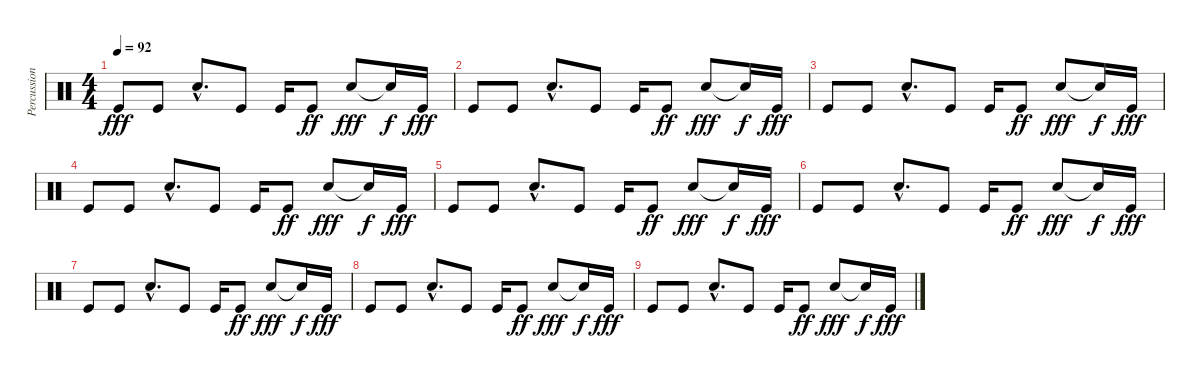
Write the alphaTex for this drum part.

\track ("Percussion" "Percussion") {instrument percussion}
\staff {score}
\articulation defaults
\ts (4 4)
\tempo 92
\clef neutral
\ks c "Kick (hit)".8{dy fff} "Kick (hit)".8 "Electric Snare (hit)"{hac}.8{d} "Kick (hit)".8 "Kick (hit)".16 "Kick (hit)".8{dy ff} "Electric Snare (hit)".8{dy fff} "Snare (hit)"{t}.16{dy f} "Kick (hit)".16{dy fff}
|
"Kick (hit)".8 "Kick (hit)".8 "Electric Snare (hit)"{hac}.8{d} "Kick (hit)".8 "Kick (hit)".16 "Kick (hit)".8{dy ff} "Electric Snare (hit)".8{dy fff} "Snare (hit)"{t}.16{dy f} "Kick (hit)".16{dy fff} |
"Kick (hit)".8 "Kick (hit)".8 "Electric Snare (hit)"{hac}.8{d} "Kick (hit)".8 "Kick (hit)".16 "Kick (hit)".8{dy ff} "Electric Snare (hit)".8{dy fff} "Snare (hit)"{t}.16{dy f} "Kick (hit)".16{dy fff} |
"Kick (hit)".8 "Kick (hit)".8 "Electric Snare (hit)"{hac}.8{d} "Kick (hit)".8 "Kick (hit)".16 "Kick (hit)".8{dy ff} "Electric Snare (hit)".8{dy fff} "Snare (hit)"{t}.16{dy f} "Kick (hit)".16{dy fff} |
"Kick (hit)".8 "Kick (hit)".8 "Electric Snare (hit)"{hac}.8{d} "Kick (hit)".8 "Kick (hit)".16 "Kick (hit)".8{dy ff} "Electric Snare (hit)".8{dy fff} "Snare (hit)"{t}.16{dy f} "Kick (hit)".16{dy fff} |
"Kick (hit)".8 "Kick (hit)".8 "Electric Snare (hit)"{hac}.8{d} "Kick (hit)".8 "Kick (hit)".16 "Kick (hit)".8{dy ff} "Electric Snare (hit)".8{dy fff} "Snare (hit)"{t}.16{dy f} "Kick (hit)".16{dy fff} |
"Kick (hit)".8 "Kick (hit)".8 "Electric Snare (hit)"{hac}.8{d} "Kick (hit)".8 "Kick (hit)".16 "Kick (hit)".8{dy ff} "Electric Snare (hit)".8{dy fff} "Snare (hit)"{t}.16{dy f} "Kick (hit)".16{dy fff} |
"Kick (hit)".8 "Kick (hit)".8 "Electric Snare (hit)"{hac}.8{d} "Kick (hit)".8 "Kick (hit)".16 "Kick (hit)".8{dy ff} "Electric Snare (hit)".8{dy fff} "Snare (hit)"{t}.16{dy f} "Kick (hit)".16{dy fff} |
"Kick (hit)".8 "Kick (hit)".8 "Electric Snare (hit)"{hac}.8{d} "Kick (hit)".8 "Kick (hit)".16 "Kick (hit)".8{dy ff} "Electric Snare (hit)".8{dy fff} "Snare (hit)"{t}.16{dy f} "Kick (hit)".16{dy fff}
